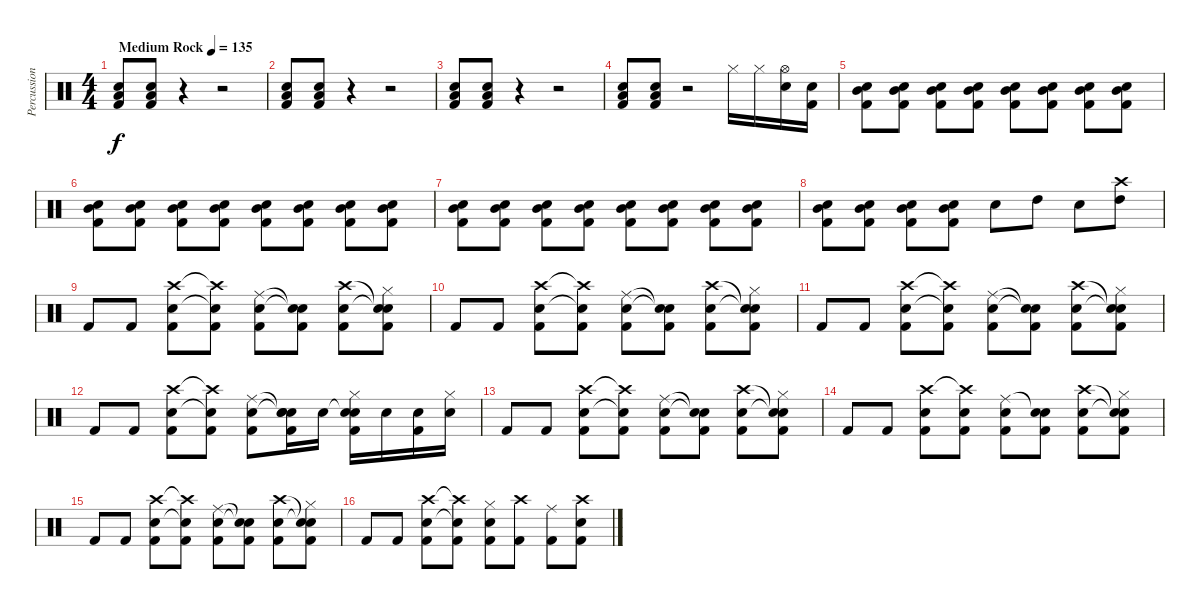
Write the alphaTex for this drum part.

\track ("Percussion" "Percussion") {instrument percussion}
\staff {score}
\articulation defaults
\ts (4 4)
\tempo (135 "Medium Rock")
\clef neutral
\ks c
("Electric Snare (hit)" "Low Tom (hit)" "Kick (hit) 2").8{dy f} ("Electric Snare (hit)" "Low Tom (hit)" "Kick (hit) 2").8 r.4 r.2 |
("Electric Snare (hit)" "Low Tom (hit)" "Kick (hit) 2").8 ("Electric Snare (hit)" "Low Tom (hit)" "Kick (hit) 2").8 r.4 r.2 |
("Electric Snare (hit)" "Low Tom (hit)" "Kick (hit) 2").8 ("Electric Snare (hit)" "Low Tom (hit)" "Kick (hit) 2").8 r.4 r.2 |
("Electric Snare (hit)" "Low Tom (hit)" "Kick (hit) 2").8 ("Electric Snare (hit)" "Low Tom (hit)" "Kick (hit) 2").8 r.2 "Hi-Hat (closed)".16 "Hi-Hat (closed)".16 ("Hi-Hat (open)" "Electric Snare (hit)").16 ("Electric Snare (hit)" "Kick (hit) 2").16 |
("Electric Snare (hit)" "Mid Tom (hit)" "Kick (hit) 2").8 ("Electric Snare (hit)" "Mid Tom (hit)" "Kick (hit) 2").8 ("Electric Snare (hit)" "Mid Tom (hit)" "Kick (hit) 2").8 ("Electric Snare (hit)" "Mid Tom (hit)" "Kick (hit) 2").8 ("Electric Snare (hit)" "Mid Tom (hit)" "Kick (hit) 2").8 ("Electric Snare (hit)" "Mid Tom (hit)" "Kick (hit) 2").8 ("Electric Snare (hit)" "Mid Tom (hit)" "Kick (hit) 2").8 ("Electric Snare (hit)" "Mid Tom (hit)" "Kick (hit) 2").8 |
("Electric Snare (hit)" "Mid Tom (hit)" "Kick (hit) 2").8 ("Electric Snare (hit)" "Mid Tom (hit)" "Kick (hit) 2").8 ("Electric Snare (hit)" "Mid Tom (hit)" "Kick (hit) 2").8 ("Electric Snare (hit)" "Mid Tom (hit)" "Kick (hit) 2").8 ("Electric Snare (hit)" "Mid Tom (hit)" "Kick (hit) 2").8 ("Electric Snare (hit)" "Mid Tom (hit)" "Kick (hit) 2").8 ("Electric Snare (hit)" "Mid Tom (hit)" "Kick (hit) 2").8 ("Electric Snare (hit)" "Mid Tom (hit)" "Kick (hit) 2").8 |
("Electric Snare (hit)" "Mid Tom (hit)" "Kick (hit) 2").8 ("Electric Snare (hit)" "Mid Tom (hit)" "Kick (hit) 2").8 ("Electric Snare (hit)" "Mid Tom (hit)" "Kick (hit) 2").8 ("Electric Snare (hit)" "Mid Tom (hit)" "Kick (hit) 2").8 ("Electric Snare (hit)" "Mid Tom (hit)" "Kick (hit) 2").8 ("Electric Snare (hit)" "Mid Tom (hit)" "Kick (hit) 2").8 ("Electric Snare (hit)" "Mid Tom (hit)" "Kick (hit) 2").8 ("Electric Snare (hit)" "Mid Tom (hit)" "Kick (hit) 2").8 |
("Electric Snare (hit)" "Mid Tom (hit)" "Kick (hit) 2").8 ("Electric Snare (hit)" "Mid Tom (hit)" "Kick (hit) 2").8 ("Electric Snare (hit)" "Mid Tom (hit)" "Kick (hit) 2").8 ("Electric Snare (hit)" "Mid Tom (hit)" "Kick (hit) 2").8 "Electric Snare (hit)".8 "High Tom (hit)".8 "Electric Snare (hit)".8 ("Crash high (hit)" "High Tom (hit)").8 |
"Kick (hit) 2".8 "Kick (hit) 2".8 ("Crash high (hit)" "Electric Snare (hit)" "Kick (hit) 2").8 ("Crash high (hit)"{t} "Electric Snare (hit)"{t} "Kick (hit) 2").8 ("Ride (middle)" "Electric Snare (hit)" "Kick (hit) 2").8 ("Snare (hit)"{t} "Snare (hit)"{t} "Kick (hit) 2").8 ("Crash high (hit)" "Electric Snare (hit)" "Kick (hit) 2").8 ("Snare (hit)"{t} "Snare (hit)"{t} "Hi-Hat (closed)" "Kick (hit) 2").8 |
"Kick (hit) 2".8 "Kick (hit) 2".8 ("Crash high (hit)" "Electric Snare (hit)" "Kick (hit) 2").8 ("Crash high (hit)"{t} "Electric Snare (hit)"{t} "Kick (hit) 2").8 ("Ride (middle)" "Electric Snare (hit)" "Kick (hit) 2").8 ("Snare (hit)"{t} "Snare (hit)"{t} "Kick (hit) 2").8 ("Crash high (hit)" "Electric Snare (hit)" "Kick (hit) 2").8 ("Snare (hit)"{t} "Snare (hit)"{t} "Hi-Hat (closed)" "Kick (hit) 2").8 |
"Kick (hit) 2".8 "Kick (hit) 2".8 ("Crash high (hit)" "Electric Snare (hit)" "Kick (hit) 2").8 ("Crash high (hit)"{t} "Electric Snare (hit)"{t} "Kick (hit) 2").8 ("Ride (middle)" "Electric Snare (hit)" "Kick (hit) 2").8 ("Snare (hit)"{t} "Snare (hit)"{t} "Kick (hit) 2").8 ("Crash high (hit)" "Electric Snare (hit)" "Kick (hit) 2").8 ("Snare (hit)"{t} "Snare (hit)"{t} "Hi-Hat (closed)" "Kick (hit) 2").8 |
"Kick (hit) 2".8 "Kick (hit) 2".8 ("Crash high (hit)" "Electric Snare (hit)" "Kick (hit) 2").8 ("Crash high (hit)"{t} "Electric Snare (hit)"{t} "Kick (hit) 2").8 ("Ride (middle)" "Electric Snare (hit)" "Kick (hit) 2").8 ("Snare (hit)"{t} "Snare (hit)"{t} "Electric Snare (hit)" "Kick (hit) 2").16 "Electric Snare (hit)".16 ("Snare (hit)"{t} "Hi-Hat (closed)" "Electric Snare (hit)" "Kick (hit) 2").16 "Electric Snare (hit)".16 ("Electric Snare (hit)" "Kick (hit) 2").16 ("Hi-Hat (closed)" "Electric Snare (hit)").16 |
"Kick (hit) 2".8 "Kick (hit) 2".8 ("Crash high (hit)" "Electric Snare (hit)" "Kick (hit) 2").8 ("Crash high (hit)"{t} "Electric Snare (hit)"{t} "Kick (hit) 2").8 ("Ride (middle)" "Electric Snare (hit)" "Kick (hit) 2").8 ("Snare (hit)"{t} "Snare (hit)"{t} "Kick (hit) 2").8 ("Crash high (hit)" "Electric Snare (hit)" "Kick (hit) 2").8 ("Snare (hit)"{t} "Snare (hit)"{t} "Hi-Hat (closed)" "Kick (hit) 2").8 |
"Kick (hit) 2".8 "Kick (hit) 2".8 ("Crash high (hit)" "Electric Snare (hit)" "Kick (hit) 2").8 ("Crash high (hit)"{t} "Electric Snare (hit)" "Kick (hit) 2").8 ("Ride (middle)" "Electric Snare (hit)" "Kick (hit) 2").8 ("Snare (hit)"{t} "Electric Snare (hit)" "Kick (hit) 2").8 ("Crash high (hit)" "Electric Snare (hit)" "Kick (hit) 2").8 ("Snare (hit)"{t} "Snare (hit)"{t} "Hi-Hat (closed)" "Kick (hit) 2").8 |
"Kick (hit) 2".8 "Kick (hit) 2".8 ("Crash high (hit)" "Electric Snare (hit)" "Kick (hit) 2").8 ("Crash high (hit)"{t} "Electric Snare (hit)"{t} "Kick (hit) 2").8 ("Ride (middle)" "Electric Snare (hit)" "Kick (hit) 2").8 ("Snare (hit)"{t} "Snare (hit)"{t} "Kick (hit) 2").8 ("Crash high (hit)" "Electric Snare (hit)" "Kick (hit) 2").8 ("Snare (hit)"{t} "Snare (hit)"{t} "Hi-Hat (closed)" "Kick (hit) 2").8 |
"Kick (hit) 2".8 "Kick (hit) 2".8 ("Crash high (hit)" "Electric Snare (hit)" "Kick (hit) 2").8 ("Crash high (hit)"{t} "Electric Snare (hit)"{t} "Kick (hit) 2").8 ("Hi-Hat (closed)" "Electric Snare (hit)" "Kick (hit) 2").8 ("Crash high (hit)" "Kick (hit) 2").8 ("Ride (middle)" "Kick (hit) 2").8 ("Crash high (hit)" "Electric Snare (hit)" "Kick (hit) 2").8
